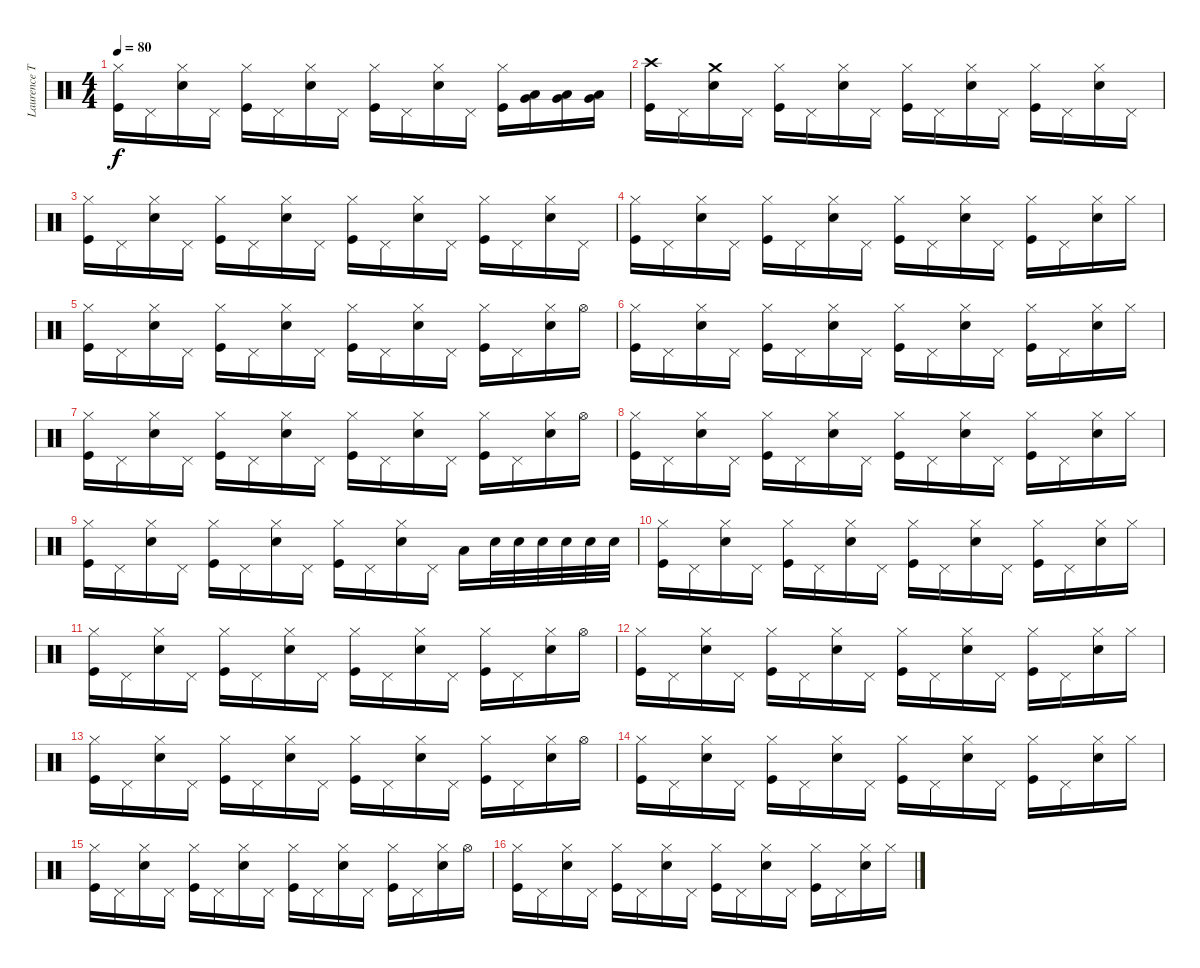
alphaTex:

\track ("Laurence Tolhurst (drums)" "Laurence T") {instrument percussion}
\staff {score}
\articulation defaults
\ts (4 4)
\tempo 80
\clef neutral
\ks c
("Kick (hit)" "Hi-Hat (closed)").16{dy f} "Pedal Hi-Hat (hit)".16 ("Snare (hit) 2" "Hi-Hat (closed)").16 "Pedal Hi-Hat (hit)".16 ("Kick (hit)" "Hi-Hat (closed)").16 "Pedal Hi-Hat (hit)".16 ("Snare (hit) 2" "Hi-Hat (closed)").16 "Pedal Hi-Hat (hit)".16 ("Kick (hit)" "Hi-Hat (closed)").16 "Pedal Hi-Hat (hit)".16 ("Snare (hit) 2" "Hi-Hat (closed)").16 "Pedal Hi-Hat (hit)".16 ("Kick (hit)" "Hi-Hat (closed)").16 ("Very Low Tom (hit)" "Low Floor Tom (hit)").16 ("Very Low Tom (hit)" "Low Floor Tom (hit)").16 ("Very Low Tom (hit)" "Low Floor Tom (hit)").16 |
("Kick (hit)" "Crash high (hit)").16 "Pedal Hi-Hat (hit)".16 ("Snare (hit) 2" "Crash medium (hit)").16 "Pedal Hi-Hat (hit)".16 ("Kick (hit)" "Hi-Hat (closed)").16 "Pedal Hi-Hat (hit)".16 ("Snare (hit) 2" "Hi-Hat (closed)").16 "Pedal Hi-Hat (hit)".16 ("Kick (hit)" "Hi-Hat (closed)").16 "Pedal Hi-Hat (hit)".16 ("Snare (hit) 2" "Hi-Hat (closed)").16 "Pedal Hi-Hat (hit)".16 ("Kick (hit)" "Hi-Hat (closed)").16 "Pedal Hi-Hat (hit)".16 ("Snare (hit) 2" "Hi-Hat (closed)").16 "Pedal Hi-Hat (hit)".16 |
("Kick (hit)" "Hi-Hat (closed)").16 "Pedal Hi-Hat (hit)".16 ("Snare (hit) 2" "Hi-Hat (closed)").16 "Pedal Hi-Hat (hit)".16 ("Kick (hit)" "Hi-Hat (closed)").16 "Pedal Hi-Hat (hit)".16 ("Snare (hit) 2" "Hi-Hat (closed)").16 "Pedal Hi-Hat (hit)".16 ("Kick (hit)" "Hi-Hat (closed)").16 "Pedal Hi-Hat (hit)".16 ("Snare (hit) 2" "Hi-Hat (closed)").16 "Pedal Hi-Hat (hit)".16 ("Kick (hit)" "Hi-Hat (closed)").16 "Pedal Hi-Hat (hit)".16 ("Snare (hit) 2" "Hi-Hat (closed)").16 "Pedal Hi-Hat (hit)".16 |
("Kick (hit)" "Hi-Hat (closed)").16 "Pedal Hi-Hat (hit)".16 ("Snare (hit) 2" "Hi-Hat (closed)").16 "Pedal Hi-Hat (hit)".16 ("Kick (hit)" "Hi-Hat (closed)").16 "Pedal Hi-Hat (hit)".16 ("Snare (hit) 2" "Hi-Hat (closed)").16 "Pedal Hi-Hat (hit)".16 ("Kick (hit)" "Hi-Hat (closed)").16 "Pedal Hi-Hat (hit)".16 ("Snare (hit) 2" "Hi-Hat (closed)").16 "Pedal Hi-Hat (hit)".16 ("Kick (hit)" "Hi-Hat (closed)").16 "Pedal Hi-Hat (hit)".16 ("Snare (hit) 2" "Hi-Hat (closed)").16 "Hi-Hat (closed)".16 |
("Kick (hit)" "Hi-Hat (closed)").16 "Pedal Hi-Hat (hit)".16 ("Snare (hit) 2" "Hi-Hat (closed)").16 "Pedal Hi-Hat (hit)".16 ("Kick (hit)" "Hi-Hat (closed)").16 "Pedal Hi-Hat (hit)".16 ("Snare (hit) 2" "Hi-Hat (closed)").16 "Pedal Hi-Hat (hit)".16 ("Kick (hit)" "Hi-Hat (closed)").16 "Pedal Hi-Hat (hit)".16 ("Snare (hit) 2" "Hi-Hat (closed)").16 "Pedal Hi-Hat (hit)".16 ("Kick (hit)" "Hi-Hat (closed)").16 "Pedal Hi-Hat (hit)".16 ("Snare (hit) 2" "Hi-Hat (closed)").16 "Hi-Hat (open)".16 |
("Kick (hit)" "Hi-Hat (closed)").16 "Pedal Hi-Hat (hit)".16 ("Snare (hit) 2" "Hi-Hat (closed)").16 "Pedal Hi-Hat (hit)".16 ("Kick (hit)" "Hi-Hat (closed)").16 "Pedal Hi-Hat (hit)".16 ("Snare (hit) 2" "Hi-Hat (closed)").16 "Pedal Hi-Hat (hit)".16 ("Kick (hit)" "Hi-Hat (closed)").16 "Pedal Hi-Hat (hit)".16 ("Snare (hit) 2" "Hi-Hat (closed)").16 "Pedal Hi-Hat (hit)".16 ("Kick (hit)" "Hi-Hat (closed)").16 "Pedal Hi-Hat (hit)".16 ("Snare (hit) 2" "Hi-Hat (closed)").16 "Hi-Hat (closed)".16 |
("Kick (hit)" "Hi-Hat (closed)").16 "Pedal Hi-Hat (hit)".16 ("Snare (hit) 2" "Hi-Hat (closed)").16 "Pedal Hi-Hat (hit)".16 ("Kick (hit)" "Hi-Hat (closed)").16 "Pedal Hi-Hat (hit)".16 ("Snare (hit) 2" "Hi-Hat (closed)").16 "Pedal Hi-Hat (hit)".16 ("Kick (hit)" "Hi-Hat (closed)").16 "Pedal Hi-Hat (hit)".16 ("Snare (hit) 2" "Hi-Hat (closed)").16 "Pedal Hi-Hat (hit)".16 ("Kick (hit)" "Hi-Hat (closed)").16 "Pedal Hi-Hat (hit)".16 ("Snare (hit) 2" "Hi-Hat (closed)").16 "Hi-Hat (open)".16 |
("Kick (hit)" "Hi-Hat (closed)").16 "Pedal Hi-Hat (hit)".16 ("Snare (hit) 2" "Hi-Hat (closed)").16 "Pedal Hi-Hat (hit)".16 ("Kick (hit)" "Hi-Hat (closed)").16 "Pedal Hi-Hat (hit)".16 ("Snare (hit) 2" "Hi-Hat (closed)").16 "Pedal Hi-Hat (hit)".16 ("Kick (hit)" "Hi-Hat (closed)").16 "Pedal Hi-Hat (hit)".16 ("Snare (hit) 2" "Hi-Hat (closed)").16 "Pedal Hi-Hat (hit)".16 ("Kick (hit)" "Hi-Hat (closed)").16 "Pedal Hi-Hat (hit)".16 ("Snare (hit) 2" "Hi-Hat (closed)").16 "Hi-Hat (closed)".16 |
("Kick (hit)" "Hi-Hat (closed)").16 "Pedal Hi-Hat (hit)".16 ("Snare (hit) 2" "Hi-Hat (closed)").16 "Pedal Hi-Hat (hit)".16 ("Kick (hit)" "Hi-Hat (closed)").16 "Pedal Hi-Hat (hit)".16 ("Snare (hit) 2" "Hi-Hat (closed)").16 "Pedal Hi-Hat (hit)".16 ("Kick (hit)" "Hi-Hat (closed)").16 "Pedal Hi-Hat (hit)".16 ("Snare (hit) 2" "Hi-Hat (closed)").16 "Pedal Hi-Hat (hit)".16 "Low Tom (hit)".16 "Snare (hit) 2".32 "Snare (hit) 2".32 "Snare (hit) 2".32 "Snare (hit) 2".32 "Snare (hit) 2".32 "Snare (hit) 2".32 |
("Kick (hit)" "Hi-Hat (closed)").16 "Pedal Hi-Hat (hit)".16 ("Snare (hit) 2" "Hi-Hat (closed)").16 "Pedal Hi-Hat (hit)".16 ("Kick (hit)" "Hi-Hat (closed)").16 "Pedal Hi-Hat (hit)".16 ("Snare (hit) 2" "Hi-Hat (closed)").16 "Pedal Hi-Hat (hit)".16 ("Kick (hit)" "Hi-Hat (closed)").16 "Pedal Hi-Hat (hit)".16 ("Snare (hit) 2" "Hi-Hat (closed)").16 "Pedal Hi-Hat (hit)".16 ("Kick (hit)" "Hi-Hat (closed)").16 "Pedal Hi-Hat (hit)".16 ("Snare (hit) 2" "Hi-Hat (closed)").16 "Hi-Hat (closed)".16 |
("Kick (hit)" "Hi-Hat (closed)").16 "Pedal Hi-Hat (hit)".16 ("Snare (hit) 2" "Hi-Hat (closed)").16 "Pedal Hi-Hat (hit)".16 ("Kick (hit)" "Hi-Hat (closed)").16 "Pedal Hi-Hat (hit)".16 ("Snare (hit) 2" "Hi-Hat (closed)").16 "Pedal Hi-Hat (hit)".16 ("Kick (hit)" "Hi-Hat (closed)").16 "Pedal Hi-Hat (hit)".16 ("Snare (hit) 2" "Hi-Hat (closed)").16 "Pedal Hi-Hat (hit)".16 ("Kick (hit)" "Hi-Hat (closed)").16 "Pedal Hi-Hat (hit)".16 ("Snare (hit) 2" "Hi-Hat (closed)").16 "Hi-Hat (open)".16 |
("Kick (hit)" "Hi-Hat (closed)").16 "Pedal Hi-Hat (hit)".16 ("Snare (hit) 2" "Hi-Hat (closed)").16 "Pedal Hi-Hat (hit)".16 ("Kick (hit)" "Hi-Hat (closed)").16 "Pedal Hi-Hat (hit)".16 ("Snare (hit) 2" "Hi-Hat (closed)").16 "Pedal Hi-Hat (hit)".16 ("Kick (hit)" "Hi-Hat (closed)").16 "Pedal Hi-Hat (hit)".16 ("Snare (hit) 2" "Hi-Hat (closed)").16 "Pedal Hi-Hat (hit)".16 ("Kick (hit)" "Hi-Hat (closed)").16 "Pedal Hi-Hat (hit)".16 ("Snare (hit) 2" "Hi-Hat (closed)").16 "Hi-Hat (closed)".16 |
("Kick (hit)" "Hi-Hat (closed)").16 "Pedal Hi-Hat (hit)".16 ("Snare (hit) 2" "Hi-Hat (closed)").16 "Pedal Hi-Hat (hit)".16 ("Kick (hit)" "Hi-Hat (closed)").16 "Pedal Hi-Hat (hit)".16 ("Snare (hit) 2" "Hi-Hat (closed)").16 "Pedal Hi-Hat (hit)".16 ("Kick (hit)" "Hi-Hat (closed)").16 "Pedal Hi-Hat (hit)".16 ("Snare (hit) 2" "Hi-Hat (closed)").16 "Pedal Hi-Hat (hit)".16 ("Kick (hit)" "Hi-Hat (closed)").16 "Pedal Hi-Hat (hit)".16 ("Snare (hit) 2" "Hi-Hat (closed)").16 "Hi-Hat (open)".16 |
("Kick (hit)" "Hi-Hat (closed)").16 "Pedal Hi-Hat (hit)".16 ("Snare (hit) 2" "Hi-Hat (closed)").16 "Pedal Hi-Hat (hit)".16 ("Kick (hit)" "Hi-Hat (closed)").16 "Pedal Hi-Hat (hit)".16 ("Snare (hit) 2" "Hi-Hat (closed)").16 "Pedal Hi-Hat (hit)".16 ("Kick (hit)" "Hi-Hat (closed)").16 "Pedal Hi-Hat (hit)".16 ("Snare (hit) 2" "Hi-Hat (closed)").16 "Pedal Hi-Hat (hit)".16 ("Kick (hit)" "Hi-Hat (closed)").16 "Pedal Hi-Hat (hit)".16 ("Snare (hit) 2" "Hi-Hat (closed)").16 "Hi-Hat (closed)".16 |
("Kick (hit)" "Hi-Hat (closed)").16 "Pedal Hi-Hat (hit)".16 ("Snare (hit) 2" "Hi-Hat (closed)").16 "Pedal Hi-Hat (hit)".16 ("Kick (hit)" "Hi-Hat (closed)").16 "Pedal Hi-Hat (hit)".16 ("Snare (hit) 2" "Hi-Hat (closed)").16 "Pedal Hi-Hat (hit)".16 ("Kick (hit)" "Hi-Hat (closed)").16 "Pedal Hi-Hat (hit)".16 ("Snare (hit) 2" "Hi-Hat (closed)").16 "Pedal Hi-Hat (hit)".16 ("Kick (hit)" "Hi-Hat (closed)").16 "Pedal Hi-Hat (hit)".16 ("Snare (hit) 2" "Hi-Hat (closed)").16 "Hi-Hat (open)".16 |
("Kick (hit)" "Hi-Hat (closed)").16 "Pedal Hi-Hat (hit)".16 ("Snare (hit) 2" "Hi-Hat (closed)").16 "Pedal Hi-Hat (hit)".16 ("Kick (hit)" "Hi-Hat (closed)").16 "Pedal Hi-Hat (hit)".16 ("Snare (hit) 2" "Hi-Hat (closed)").16 "Pedal Hi-Hat (hit)".16 ("Kick (hit)" "Hi-Hat (closed)").16 "Pedal Hi-Hat (hit)".16 ("Snare (hit) 2" "Hi-Hat (closed)").16 "Pedal Hi-Hat (hit)".16 ("Kick (hit)" "Hi-Hat (closed)").16 "Pedal Hi-Hat (hit)".16 ("Snare (hit) 2" "Hi-Hat (closed)").16 "Hi-Hat (closed)".16
